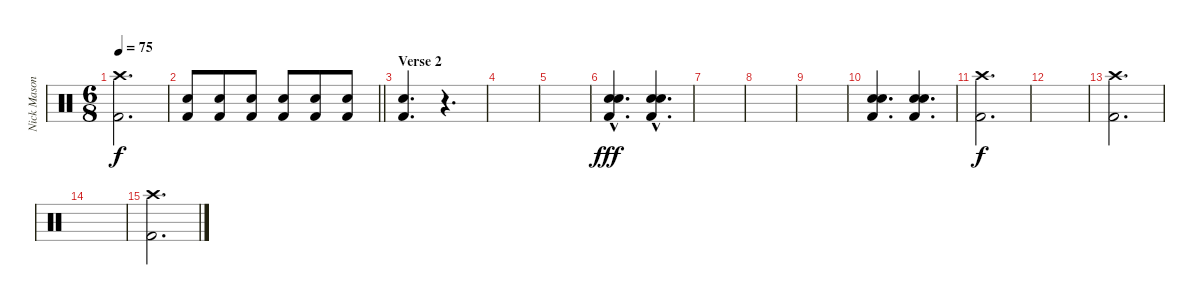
\track ("Nick Mason (Drums)" "Nick Mason") {instrument percussion}
\staff {score}
\articulation defaults
\ts (6 8)
\tempo 75
\clef neutral
\ks c
("Crash high (hit)" "Kick (hit) 2").2{d dy f} |
\barLineRight lightlight
("Snare (hit) 2" "Kick (hit) 2").8 ("Snare (hit) 2" "Kick (hit) 2").8 ("Snare (hit) 2" "Kick (hit) 2").8 ("Snare (hit) 2" "Kick (hit) 2").8 ("Snare (hit) 2" "Kick (hit) 2").8 ("Snare (hit) 2" "Kick (hit) 2").8 |
\section ("" "Verse 2")
("Snare (hit) 2" "Kick (hit) 2").4{d} r.4{d} |
|
|
("Snare (hit) 2"{hac} "Snare (hit) 2" "Kick (hit) 2"{hac}).4{d dy fff} ("Snare (hit) 2"{hac} "Snare (hit) 2" "Kick (hit) 2"{hac}).4{d} |
|
|
|
("Snare (hit) 2" "Snare (hit) 2" "Kick (hit) 2").4{d} ("Snare (hit) 2" "Snare (hit) 2" "Kick (hit) 2").4{d} |
("Crash high (hit)" "Kick (hit) 2").2{d dy f} |
|
("Crash high (hit)" "Kick (hit) 2").2{d} |
|
("Crash high (hit)" "Kick (hit) 2").2{d}
